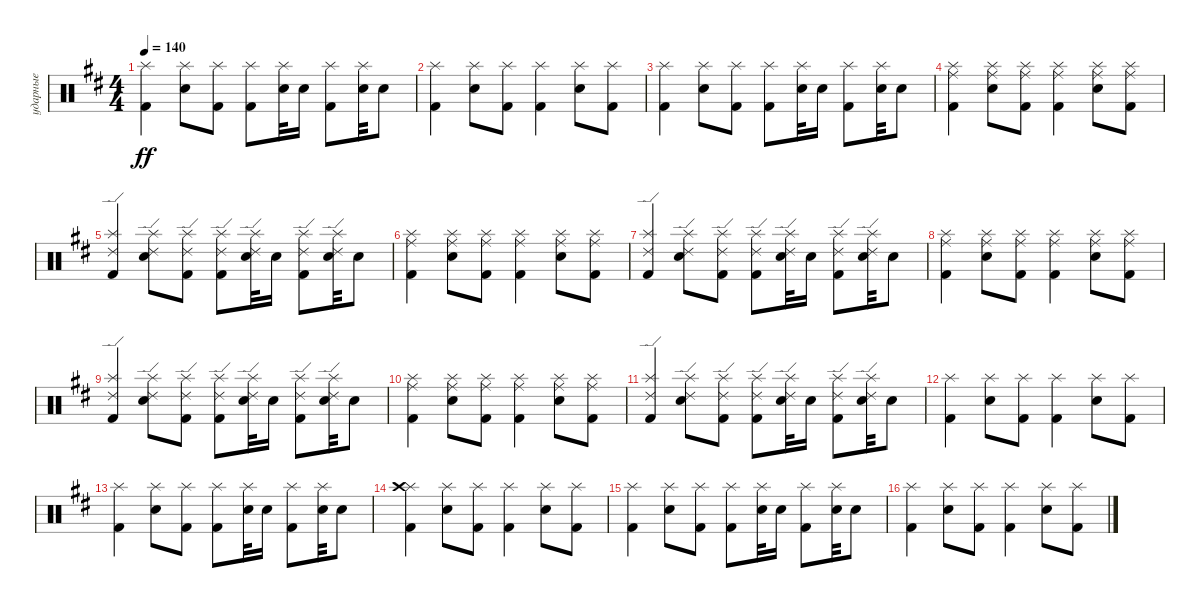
\track ("ударные" "ударные") {instrument percussion}
\staff {score}
\articulation defaults
\ts (4 4)
\tempo 140
\clef neutral
\ks bminor
("Kick (hit) 2" "Splash (hit)").4{dy ff} ("Snare (hit) 2" "Splash (hit)").8 ("Kick (hit) 2" "Splash (hit)").8 ("Kick (hit) 2" "Splash (hit)").8 ("Snare (hit) 2" "Splash (hit)").32 "Snare (hit) 2".16{beam split} ("Kick (hit) 2" "Splash (hit)").8{beam merge} ("Snare (hit) 2" "Splash (hit)").32 "Snare (hit) 2".8 |
("Kick (hit) 2" "Splash (hit)").4 ("Snare (hit) 2" "Splash (hit)").8 ("Kick (hit) 2" "Splash (hit)").8 ("Kick (hit) 2" "Splash (hit)").4 ("Snare (hit) 2" "Splash (hit)").8 ("Kick (hit) 2" "Splash (hit)").8 |
("Kick (hit) 2" "Splash (hit)").4 ("Snare (hit) 2" "Splash (hit)").8 ("Kick (hit) 2" "Splash (hit)").8 ("Kick (hit) 2" "Splash (hit)").8 ("Snare (hit) 2" "Splash (hit)").32 "Snare (hit) 2".16{beam split} ("Kick (hit) 2" "Splash (hit)").8{beam merge} ("Snare (hit) 2" "Splash (hit)").32 "Snare (hit) 2".8 |
("Kick (hit) 2" "Splash (hit)" "Ride (middle)").4 ("Snare (hit) 2" "Splash (hit)" "Ride (middle)").8 ("Kick (hit) 2" "Splash (hit)" "Ride (middle)").8 ("Kick (hit) 2" "Splash (hit)" "Ride (middle)").4 ("Snare (hit) 2" "Splash (hit)" "Ride (middle)").8 ("Kick (hit) 2" "Splash (hit)" "Ride (middle)").8 |
("Kick (hit) 2" "Splash (hit)" "Ride (edge) 2").4 ("Snare (hit) 2" "Splash (hit)" "Ride (edge) 2").8 ("Kick (hit) 2" "Splash (hit)" "Ride (edge) 2").8 ("Kick (hit) 2" "Splash (hit)" "Ride (edge) 2").8 ("Snare (hit) 2" "Splash (hit)" "Ride (edge) 2").32 "Snare (hit) 2".16{beam split} ("Kick (hit) 2" "Splash (hit)" "Ride (edge) 2").8{beam merge} ("Snare (hit) 2" "Splash (hit)" "Ride (edge) 2").32 "Snare (hit) 2".8 |
("Kick (hit) 2" "Splash (hit)" "Ride (middle)").4 ("Snare (hit) 2" "Splash (hit)" "Ride (middle)").8 ("Kick (hit) 2" "Splash (hit)" "Ride (middle)").8 ("Kick (hit) 2" "Splash (hit)" "Ride (middle)").4 ("Snare (hit) 2" "Splash (hit)" "Ride (middle)").8 ("Kick (hit) 2" "Splash (hit)" "Ride (middle)").8 |
("Kick (hit) 2" "Splash (hit)" "Ride (edge) 2").4 ("Snare (hit) 2" "Splash (hit)" "Ride (edge) 2").8 ("Kick (hit) 2" "Splash (hit)" "Ride (edge) 2").8 ("Kick (hit) 2" "Splash (hit)" "Ride (edge) 2").8 ("Snare (hit) 2" "Splash (hit)" "Ride (edge) 2").32 "Snare (hit) 2".16{beam split} ("Kick (hit) 2" "Splash (hit)" "Ride (edge) 2").8{beam merge} ("Snare (hit) 2" "Splash (hit)" "Ride (edge) 2").32 "Snare (hit) 2".8 |
("Kick (hit) 2" "Splash (hit)" "Ride (middle)").4 ("Snare (hit) 2" "Splash (hit)" "Ride (middle)").8 ("Kick (hit) 2" "Splash (hit)" "Ride (middle)").8 ("Kick (hit) 2" "Splash (hit)" "Ride (middle)").4 ("Snare (hit) 2" "Splash (hit)" "Ride (middle)").8 ("Kick (hit) 2" "Splash (hit)" "Ride (middle)").8 |
("Kick (hit) 2" "Splash (hit)" "Ride (edge) 2").4 ("Snare (hit) 2" "Splash (hit)" "Ride (edge) 2").8 ("Kick (hit) 2" "Splash (hit)" "Ride (edge) 2").8 ("Kick (hit) 2" "Splash (hit)" "Ride (edge) 2").8 ("Snare (hit) 2" "Splash (hit)" "Ride (edge) 2").32 "Snare (hit) 2".16{beam split} ("Kick (hit) 2" "Splash (hit)" "Ride (edge) 2").8{beam merge} ("Snare (hit) 2" "Splash (hit)" "Ride (edge) 2").32 "Snare (hit) 2".8 |
("Kick (hit) 2" "Splash (hit)" "Ride (middle)").4 ("Snare (hit) 2" "Splash (hit)" "Ride (middle)").8 ("Kick (hit) 2" "Splash (hit)" "Ride (middle)").8 ("Kick (hit) 2" "Splash (hit)" "Ride (middle)").4 ("Snare (hit) 2" "Splash (hit)" "Ride (middle)").8 ("Kick (hit) 2" "Splash (hit)" "Ride (middle)").8 |
("Kick (hit) 2" "Splash (hit)" "Ride (edge) 2").4 ("Snare (hit) 2" "Splash (hit)" "Ride (edge) 2").8 ("Kick (hit) 2" "Splash (hit)" "Ride (edge) 2").8 ("Kick (hit) 2" "Splash (hit)" "Ride (edge) 2").8 ("Snare (hit) 2" "Splash (hit)" "Ride (edge) 2").32 "Snare (hit) 2".16{beam split} ("Kick (hit) 2" "Splash (hit)" "Ride (edge) 2").8{beam merge} ("Snare (hit) 2" "Splash (hit)" "Ride (edge) 2").32 "Snare (hit) 2".8 |
("Kick (hit) 2" "Splash (hit)").4 ("Snare (hit) 2" "Splash (hit)").8 ("Kick (hit) 2" "Splash (hit)").8 ("Kick (hit) 2" "Splash (hit)").4 ("Snare (hit) 2" "Splash (hit)").8 ("Kick (hit) 2" "Splash (hit)").8 |
("Kick (hit) 2" "Splash (hit)").4 ("Snare (hit) 2" "Splash (hit)").8 ("Kick (hit) 2" "Splash (hit)").8 ("Kick (hit) 2" "Splash (hit)").8 ("Snare (hit) 2" "Splash (hit)").32 "Snare (hit) 2".16{beam split} ("Kick (hit) 2" "Splash (hit)").8{beam merge} ("Snare (hit) 2" "Splash (hit)").32 "Snare (hit) 2".8 |
("Kick (hit) 2" "Splash (hit)" "Crash high (hit)").4 ("Snare (hit) 2" "Splash (hit)").8 ("Kick (hit) 2" "Splash (hit)").8 ("Kick (hit) 2" "Splash (hit)").4 ("Snare (hit) 2" "Splash (hit)").8 ("Kick (hit) 2" "Splash (hit)").8 |
("Kick (hit) 2" "Splash (hit)").4 ("Snare (hit) 2" "Splash (hit)").8 ("Kick (hit) 2" "Splash (hit)").8 ("Kick (hit) 2" "Splash (hit)").8 ("Snare (hit) 2" "Splash (hit)").32 "Snare (hit) 2".16{beam split} ("Kick (hit) 2" "Splash (hit)").8{beam merge} ("Snare (hit) 2" "Splash (hit)").32 "Snare (hit) 2".8 |
("Kick (hit) 2" "Splash (hit)").4 ("Snare (hit) 2" "Splash (hit)").8 ("Kick (hit) 2" "Splash (hit)").8 ("Kick (hit) 2" "Splash (hit)").4 ("Snare (hit) 2" "Splash (hit)").8 ("Kick (hit) 2" "Splash (hit)").8
